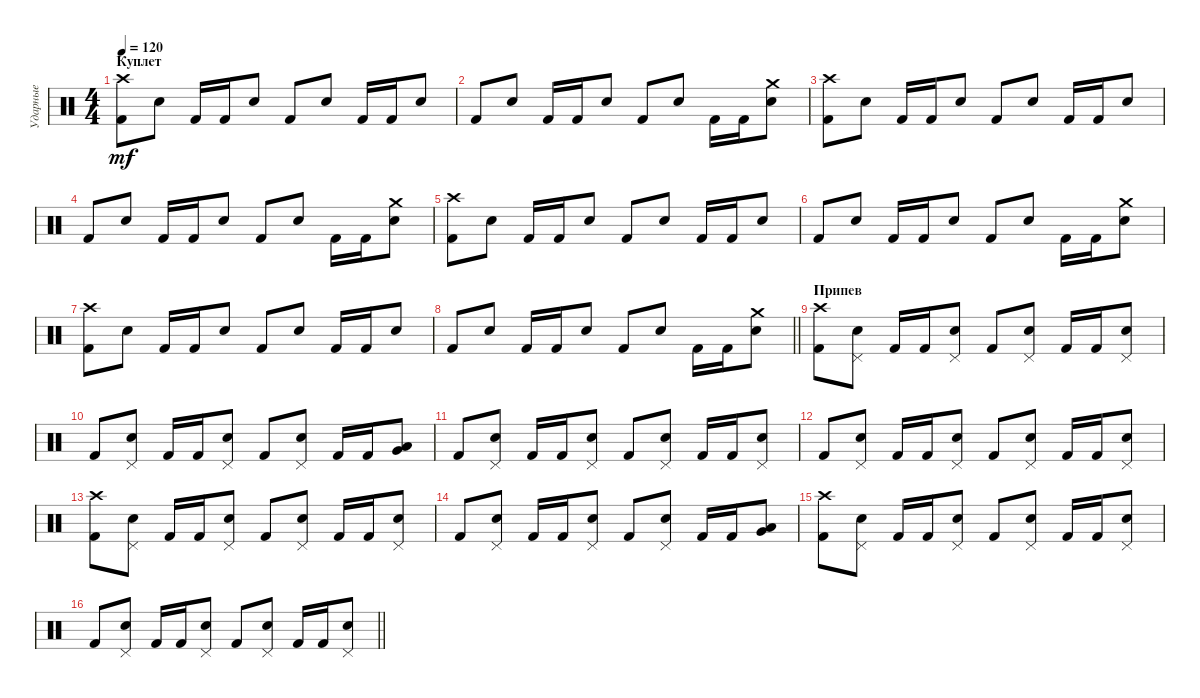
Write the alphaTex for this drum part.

\track ("Ударные" "Ударные") {instrument percussion}
\staff {score}
\articulation defaults
\ts (4 4)
\section ("" "Куплет")
\tempo 120
\clef neutral
\ks c
("Crash high (hit)" "Kick (hit) 2").8{dy mf} "Electric Snare (hit)".8 "Kick (hit) 2".16 "Kick (hit) 2".16 "Electric Snare (hit)".8 "Kick (hit) 2".8 "Electric Snare (hit)".8 "Kick (hit) 2".16 "Kick (hit) 2".16 "Electric Snare (hit)".8 |
"Kick (hit) 2".8 "Electric Snare (hit)".8 "Kick (hit) 2".16 "Kick (hit) 2".16 "Electric Snare (hit)".8 "Kick (hit) 2".8 "Electric Snare (hit)".8 "Kick (hit) 2".16 "Kick (hit) 2".16 ("Crash medium (hit)" "Electric Snare (hit)").8 |
("Crash high (hit)" "Kick (hit) 2").8 "Electric Snare (hit)".8 "Kick (hit) 2".16 "Kick (hit) 2".16 "Electric Snare (hit)".8 "Kick (hit) 2".8 "Electric Snare (hit)".8 "Kick (hit) 2".16 "Kick (hit) 2".16 "Electric Snare (hit)".8 |
"Kick (hit) 2".8 "Electric Snare (hit)".8 "Kick (hit) 2".16 "Kick (hit) 2".16 "Electric Snare (hit)".8 "Kick (hit) 2".8 "Electric Snare (hit)".8 "Kick (hit) 2".16 "Kick (hit) 2".16 ("Crash medium (hit)" "Electric Snare (hit)").8 |
("Crash high (hit)" "Kick (hit) 2").8 "Electric Snare (hit)".8 "Kick (hit) 2".16 "Kick (hit) 2".16 "Electric Snare (hit)".8 "Kick (hit) 2".8 "Electric Snare (hit)".8 "Kick (hit) 2".16 "Kick (hit) 2".16 "Electric Snare (hit)".8 |
"Kick (hit) 2".8 "Electric Snare (hit)".8 "Kick (hit) 2".16 "Kick (hit) 2".16 "Electric Snare (hit)".8 "Kick (hit) 2".8 "Electric Snare (hit)".8 "Kick (hit) 2".16 "Kick (hit) 2".16 ("Crash medium (hit)" "Electric Snare (hit)").8 |
("Crash high (hit)" "Kick (hit) 2").8 "Electric Snare (hit)".8 "Kick (hit) 2".16 "Kick (hit) 2".16 "Electric Snare (hit)".8 "Kick (hit) 2".8 "Electric Snare (hit)".8 "Kick (hit) 2".16 "Kick (hit) 2".16 "Electric Snare (hit)".8 |
\barLineRight lightlight "Kick (hit) 2".8 "Electric Snare (hit)".8 "Kick (hit) 2".16 "Kick (hit) 2".16 "Electric Snare (hit)".8 "Kick (hit) 2".8 "Electric Snare (hit)".8 "Kick (hit) 2".16 "Kick (hit) 2".16
("Crash medium (hit)" "Electric Snare (hit)").8 |
\section ("" "Припев")
("Crash high (hit)" "Kick (hit) 2").8 ("Pedal Hi-Hat (hit)" "Electric Snare (hit)").8 "Kick (hit) 2".16 "Kick (hit) 2".16 ("Pedal Hi-Hat (hit)" "Electric Snare (hit)").8 "Kick (hit) 2".8 ("Pedal Hi-Hat (hit)" "Electric Snare (hit)").8 "Kick (hit) 2".16 "Kick (hit) 2".16 ("Pedal Hi-Hat (hit)" "Electric Snare (hit)").8 |
"Kick (hit) 2".8 ("Pedal Hi-Hat (hit)" "Electric Snare (hit)").8 "Kick (hit) 2".16 "Kick (hit) 2".16 ("Pedal Hi-Hat (hit)" "Electric Snare (hit)").8 "Kick (hit) 2".8 ("Pedal Hi-Hat (hit)" "Electric Snare (hit)").8 "Kick (hit) 2".16 "Kick (hit) 2".16 ("Very Low Tom (hit)" "Low Floor Tom (hit)").8 |
"Kick (hit) 2".8 ("Pedal Hi-Hat (hit)" "Electric Snare (hit)").8 "Kick (hit) 2".16 "Kick (hit) 2".16 ("Pedal Hi-Hat (hit)" "Electric Snare (hit)").8 "Kick (hit) 2".8 ("Pedal Hi-Hat (hit)" "Electric Snare (hit)").8 "Kick (hit) 2".16 "Kick (hit) 2".16 ("Pedal Hi-Hat (hit)" "Electric Snare (hit)").8 |
"Kick (hit) 2".8 ("Pedal Hi-Hat (hit)" "Electric Snare (hit)").8 "Kick (hit) 2".16 "Kick (hit) 2".16 ("Pedal Hi-Hat (hit)" "Electric Snare (hit)").8 "Kick (hit) 2".8 ("Pedal Hi-Hat (hit)" "Electric Snare (hit)").8 "Kick (hit) 2".16 "Kick (hit) 2".16 ("Pedal Hi-Hat (hit)" "Electric Snare (hit)").8 |
("Crash high (hit)" "Kick (hit) 2").8 ("Pedal Hi-Hat (hit)" "Electric Snare (hit)").8 "Kick (hit) 2".16 "Kick (hit) 2".16 ("Pedal Hi-Hat (hit)" "Electric Snare (hit)").8 "Kick (hit) 2".8 ("Pedal Hi-Hat (hit)" "Electric Snare (hit)").8 "Kick (hit) 2".16 "Kick (hit) 2".16 ("Pedal Hi-Hat (hit)" "Electric Snare (hit)").8 |
"Kick (hit) 2".8 ("Pedal Hi-Hat (hit)" "Electric Snare (hit)").8 "Kick (hit) 2".16 "Kick (hit) 2".16 ("Pedal Hi-Hat (hit)" "Electric Snare (hit)").8 "Kick (hit) 2".8 ("Pedal Hi-Hat (hit)" "Electric Snare (hit)").8 "Kick (hit) 2".16 "Kick (hit) 2".16 ("Low Floor Tom (hit)" "Very Low Tom (hit)").8 |
("Crash high (hit)" "Kick (hit) 2").8 ("Pedal Hi-Hat (hit)" "Electric Snare (hit)").8 "Kick (hit) 2".16 "Kick (hit) 2".16 ("Pedal Hi-Hat (hit)" "Electric Snare (hit)").8 "Kick (hit) 2".8 ("Pedal Hi-Hat (hit)" "Electric Snare (hit)").8 "Kick (hit) 2".16 "Kick (hit) 2".16 ("Pedal Hi-Hat (hit)" "Electric Snare (hit)").8 |
\barLineRight lightlight "Kick (hit) 2".8
("Pedal Hi-Hat (hit)" "Electric Snare (hit)").8 "Kick (hit) 2".16 "Kick (hit) 2".16 ("Pedal Hi-Hat (hit)" "Electric Snare (hit)").8 "Kick (hit) 2".8 ("Pedal Hi-Hat (hit)" "Electric Snare (hit)").8 "Kick (hit) 2".16 "Kick (hit) 2".16 ("Pedal Hi-Hat (hit)" "Electric Snare (hit)").8
